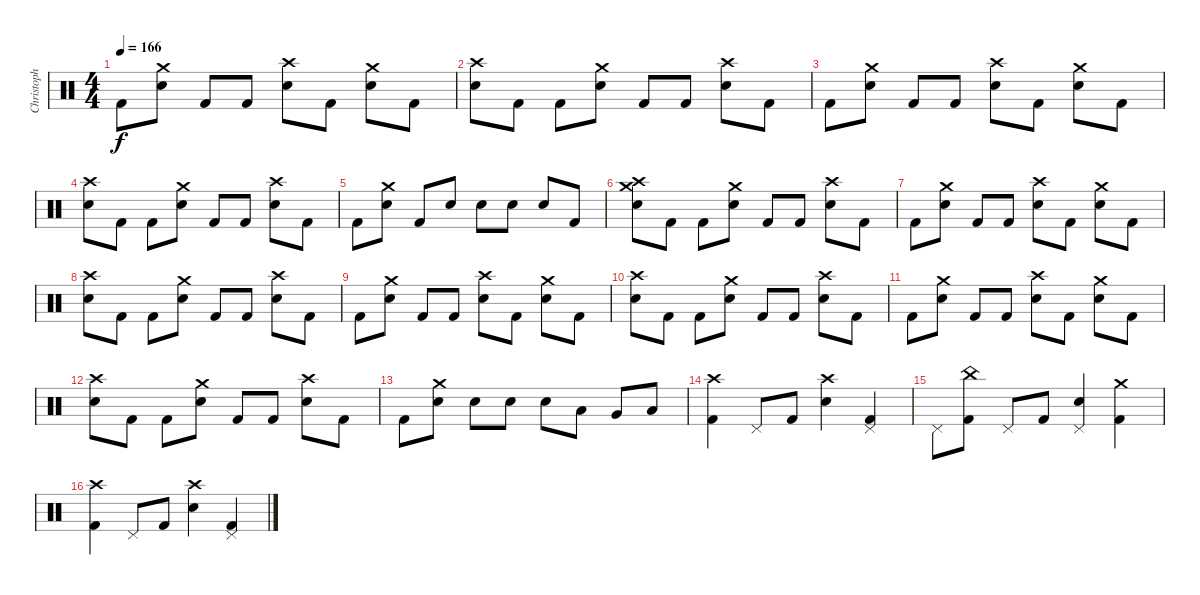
\track ("Christoph" "Christoph") {instrument percussion}
\staff {score}
\articulation defaults
\ts (4 4)
\tempo 166
\clef neutral
\ks c "Kick (hit) 2".8{dy f}
("Crash medium (hit)" "Electric Snare (hit)").8 "Kick (hit) 2".8 "Kick (hit) 2".8 ("Crash high (hit)" "Electric Snare (hit)").8 "Kick (hit) 2".8 ("Crash medium (hit)" "Electric Snare (hit)").8 "Kick (hit) 2".8 |
("Crash high (hit)" "Electric Snare (hit)").8 "Kick (hit) 2".8 "Kick (hit) 2".8 ("Crash medium (hit)" "Electric Snare (hit)").8 "Kick (hit) 2".8 "Kick (hit) 2".8 ("Crash high (hit)" "Electric Snare (hit)").8 "Kick (hit) 2".8 |
"Kick (hit) 2".8 ("Crash medium (hit)" "Electric Snare (hit)").8 "Kick (hit) 2".8 "Kick (hit) 2".8 ("Crash high (hit)" "Electric Snare (hit)").8 "Kick (hit) 2".8 ("Crash medium (hit)" "Electric Snare (hit)").8 "Kick (hit) 2".8 |
("Crash high (hit)" "Electric Snare (hit)").8 "Kick (hit) 2".8 "Kick (hit) 2".8 ("Crash medium (hit)" "Electric Snare (hit)").8 "Kick (hit) 2".8 "Kick (hit) 2".8 ("Crash high (hit)" "Electric Snare (hit)").8 "Kick (hit) 2".8 |
"Kick (hit) 2".8 ("Crash medium (hit)" "Electric Snare (hit)").8 "Kick (hit) 2".8 "Electric Snare (hit)".8 "Electric Snare (hit)".8 "Electric Snare (hit)".8 "Electric Snare (hit)".8 "Kick (hit) 2".8 |
("Crash medium (hit)" "Crash high (hit)" "Electric Snare (hit)").8 "Kick (hit) 2".8 "Kick (hit) 2".8 ("Crash medium (hit)" "Electric Snare (hit)").8 "Kick (hit) 2".8 "Kick (hit) 2".8 ("Crash high (hit)" "Electric Snare (hit)").8 "Kick (hit) 2".8 |
"Kick (hit) 2".8 ("Crash medium (hit)" "Electric Snare (hit)").8 "Kick (hit) 2".8 "Kick (hit) 2".8 ("Crash high (hit)" "Electric Snare (hit)").8 "Kick (hit) 2".8 ("Crash medium (hit)" "Electric Snare (hit)").8 "Kick (hit) 2".8 |
("Crash high (hit)" "Electric Snare (hit)").8 "Kick (hit) 2".8 "Kick (hit) 2".8 ("Crash medium (hit)" "Electric Snare (hit)").8 "Kick (hit) 2".8 "Kick (hit) 2".8 ("Crash high (hit)" "Electric Snare (hit)").8 "Kick (hit) 2".8 |
"Kick (hit) 2".8 ("Crash medium (hit)" "Electric Snare (hit)").8 "Kick (hit) 2".8 "Kick (hit) 2".8 ("Crash high (hit)" "Electric Snare (hit)").8 "Kick (hit) 2".8 ("Crash medium (hit)" "Electric Snare (hit)").8 "Kick (hit) 2".8 |
("Crash high (hit)" "Electric Snare (hit)").8 "Kick (hit) 2".8 "Kick (hit) 2".8 ("Crash medium (hit)" "Electric Snare (hit)").8 "Kick (hit) 2".8 "Kick (hit) 2".8 ("Crash high (hit)" "Electric Snare (hit)").8 "Kick (hit) 2".8 |
"Kick (hit) 2".8 ("Crash medium (hit)" "Electric Snare (hit)").8 "Kick (hit) 2".8 "Kick (hit) 2".8 ("Crash high (hit)" "Electric Snare (hit)").8 "Kick (hit) 2".8 ("Crash medium (hit)" "Electric Snare (hit)").8 "Kick (hit) 2".8 |
("Crash high (hit)" "Electric Snare (hit)").8 "Kick (hit) 2".8 "Kick (hit) 2".8 ("Crash medium (hit)" "Electric Snare (hit)").8 "Kick (hit) 2".8 "Kick (hit) 2".8 ("Crash high (hit)" "Electric Snare (hit)").8 "Kick (hit) 2".8 |
"Kick (hit) 2".8 ("Crash medium (hit)" "Electric Snare (hit)").8 "Electric Snare (hit)".8 "Electric Snare (hit)".8 "Electric Snare (hit)".8 "Low Tom (hit)".8 "Very Low Tom (hit)".8 "Low Floor Tom (hit)".8 |
("Crash high (hit)" "Kick (hit) 2").4 "Pedal Hi-Hat (hit)".8 "Kick (hit) 2".8 ("Crash high (hit)" "Electric Snare (hit)").4 ("Pedal Hi-Hat (hit)" "Kick (hit) 2").4 |
"Pedal Hi-Hat (hit)".8 ("China (hit)" "Kick (hit) 2").8 "Pedal Hi-Hat (hit)".8 "Kick (hit) 2".8 ("Pedal Hi-Hat (hit)" "Electric Snare (hit)").4 ("Crash medium (hit)" "Kick (hit) 2").4 |
("Crash high (hit)" "Kick (hit) 2").4 "Pedal Hi-Hat (hit)".8 "Kick (hit) 2".8 ("Crash high (hit)" "Electric Snare (hit)").4 ("Pedal Hi-Hat (hit)" "Kick (hit) 2").4
